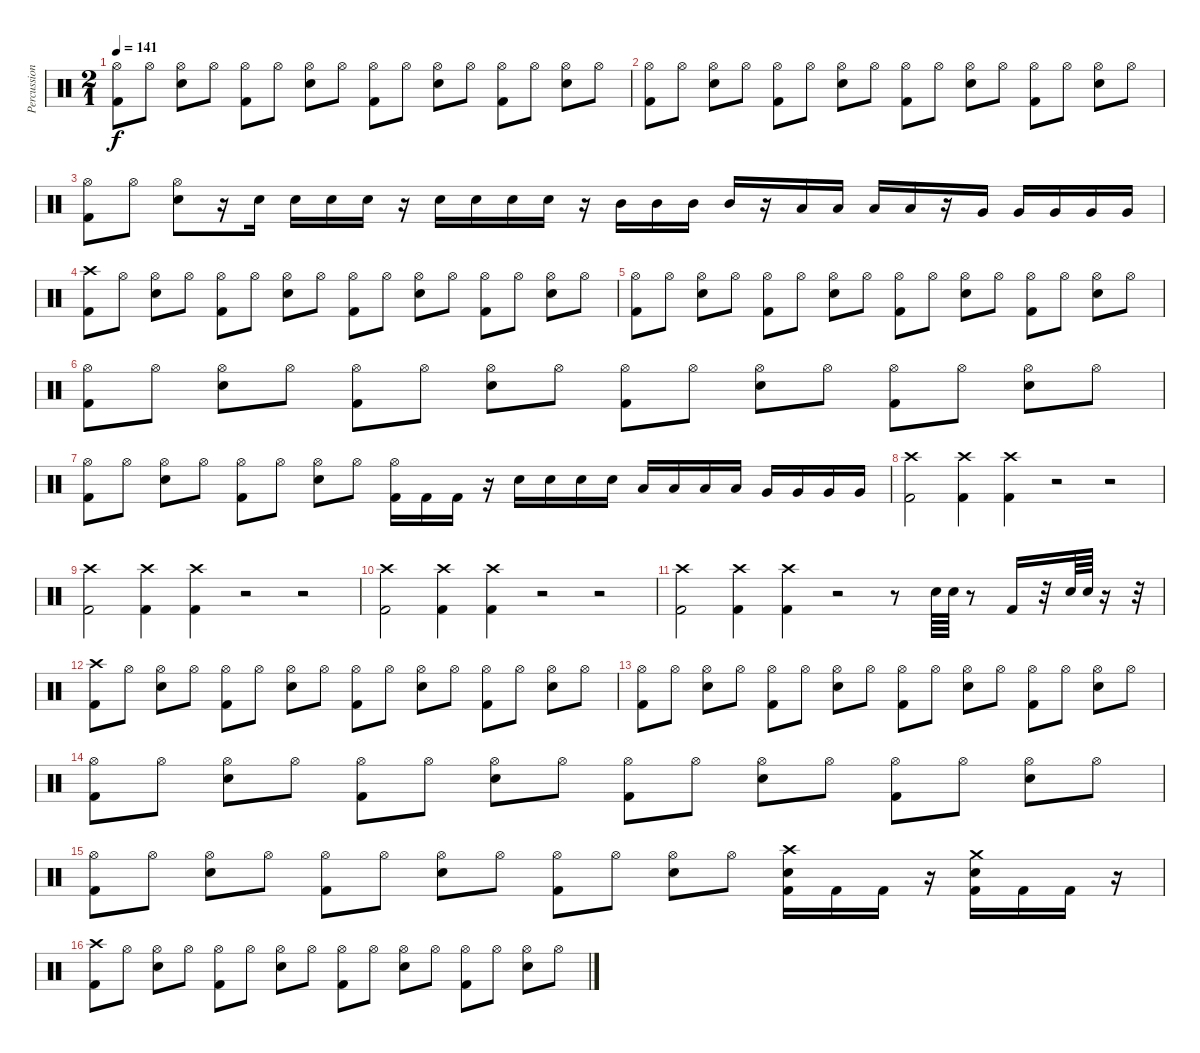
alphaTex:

\track ("Percussion" "Percussion") {instrument percussion}
\staff {score}
\articulation defaults
\ts (2 1)
\tempo 141
\clef neutral
\ks c
("Hi-Hat (open)" "Kick (hit) 2").8{dy f} "Hi-Hat (open)".8 ("Hi-Hat (open)" "Snare (hit) 2").8 "Hi-Hat (open)".8 ("Hi-Hat (open)" "Kick (hit) 2").8 "Hi-Hat (open)".8 ("Hi-Hat (open)" "Snare (hit) 2").8 "Hi-Hat (open)".8 ("Hi-Hat (open)" "Kick (hit) 2").8 "Hi-Hat (open)".8 ("Hi-Hat (open)" "Snare (hit) 2").8 "Hi-Hat (open)".8 ("Hi-Hat (open)" "Kick (hit) 2").8 "Hi-Hat (open)".8 ("Hi-Hat (open)" "Snare (hit) 2").8 "Hi-Hat (open)".8 |
("Hi-Hat (open)" "Kick (hit) 2").8 "Hi-Hat (open)".8 ("Hi-Hat (open)" "Snare (hit) 2").8 "Hi-Hat (open)".8 ("Hi-Hat (open)" "Kick (hit) 2").8 "Hi-Hat (open)".8 ("Hi-Hat (open)" "Snare (hit) 2").8 "Hi-Hat (open)".8 ("Hi-Hat (open)" "Kick (hit) 2").8 "Hi-Hat (open)".8 ("Hi-Hat (open)" "Snare (hit) 2").8 "Hi-Hat (open)".8 ("Hi-Hat (open)" "Kick (hit) 2").8 "Hi-Hat (open)".8 ("Hi-Hat (open)" "Snare (hit) 2").8 "Hi-Hat (open)".8 |
("Hi-Hat (open)" "Kick (hit) 2").8 "Hi-Hat (open)".8 ("Hi-Hat (open)" "Snare (hit) 2").8 r.16 "Snare (hit) 2".16 "Snare (hit) 2".16 "Snare (hit) 2".16 "Snare (hit) 2".16 r.16 "Snare (hit) 2".16 "Snare (hit) 2".16 "Snare (hit) 2".16 "Snare (hit) 2".16 r.16 "Mid Tom (hit)".16 "Mid Tom (hit)".16 "Mid Tom (hit)".16 "Mid Tom (hit)".16 r.16 "Low Tom (hit)".16 "Low Tom (hit)".16 "Low Tom (hit)".16 "Low Tom (hit)".16 r.16 "Very Low Tom (hit)".16 "Very Low Tom (hit)".16 "Very Low Tom (hit)".16 "Very Low Tom (hit)".16 "Very Low Tom (hit)".16 |
("Crash high (hit)" "Kick (hit) 2").8 "Hi-Hat (open)".8 ("Hi-Hat (open)" "Snare (hit) 2").8 "Hi-Hat (open)".8 ("Hi-Hat (open)" "Kick (hit) 2").8 "Hi-Hat (open)".8 ("Hi-Hat (open)" "Snare (hit) 2").8 "Hi-Hat (open)".8 ("Hi-Hat (open)" "Kick (hit) 2").8 "Hi-Hat (open)".8 ("Hi-Hat (open)" "Snare (hit) 2").8 "Hi-Hat (open)".8 ("Hi-Hat (open)" "Kick (hit) 2").8 "Hi-Hat (open)".8 ("Hi-Hat (open)" "Snare (hit) 2").8 "Hi-Hat (open)".8 |
("Hi-Hat (open)" "Kick (hit) 2").8 "Hi-Hat (open)".8 ("Hi-Hat (open)" "Snare (hit) 2").8 "Hi-Hat (open)".8 ("Hi-Hat (open)" "Kick (hit) 2").8 "Hi-Hat (open)".8 ("Hi-Hat (open)" "Snare (hit) 2").8 "Hi-Hat (open)".8 ("Hi-Hat (open)" "Kick (hit) 2").8 "Hi-Hat (open)".8 ("Hi-Hat (open)" "Snare (hit) 2").8 "Hi-Hat (open)".8 ("Hi-Hat (open)" "Kick (hit) 2").8 "Hi-Hat (open)".8 ("Hi-Hat (open)" "Snare (hit) 2").8 "Hi-Hat (open)".8 |
("Hi-Hat (open)" "Kick (hit) 2").8 "Hi-Hat (open)".8 ("Hi-Hat (open)" "Snare (hit) 2").8 "Hi-Hat (open)".8 ("Hi-Hat (open)" "Kick (hit) 2").8 "Hi-Hat (open)".8 ("Hi-Hat (open)" "Snare (hit) 2").8 "Hi-Hat (open)".8 ("Hi-Hat (open)" "Kick (hit) 2").8 "Hi-Hat (open)".8 ("Hi-Hat (open)" "Snare (hit) 2").8 "Hi-Hat (open)".8 ("Hi-Hat (open)" "Kick (hit) 2").8 "Hi-Hat (open)".8 ("Hi-Hat (open)" "Snare (hit) 2").8 "Hi-Hat (open)".8 |
("Hi-Hat (open)" "Kick (hit) 2").8 "Hi-Hat (open)".8 ("Hi-Hat (open)" "Snare (hit) 2").8 "Hi-Hat (open)".8 ("Hi-Hat (open)" "Kick (hit) 2").8 "Hi-Hat (open)".8 ("Hi-Hat (open)" "Snare (hit) 2").8 "Hi-Hat (open)".8 ("Hi-Hat (open)" "Kick (hit) 2").16 "Kick (hit) 2".16 "Kick (hit) 2".16 r.16 "Snare (hit) 2".16 "Snare (hit) 2".16 "Snare (hit) 2".16 "Snare (hit) 2".16 "Low Tom (hit)".16 "Low Tom (hit)".16 "Low Tom (hit)".16 "Low Tom (hit)".16 "Very Low Tom (hit)".16 "Very Low Tom (hit)".16 "Very Low Tom (hit)".16 "Very Low Tom (hit)".16 |
("Crash high (hit)" "Kick (hit) 2").2 ("Crash high (hit)" "Kick (hit) 2").4 ("Crash high (hit)" "Kick (hit) 2").4 r.2 r.2 |
("Crash high (hit)" "Kick (hit) 2").2 ("Crash high (hit)" "Kick (hit) 2").4 ("Crash high (hit)" "Kick (hit) 2").4 r.2 r.2 |
("Crash high (hit)" "Kick (hit) 2").2 ("Crash high (hit)" "Kick (hit) 2").4 ("Crash high (hit)" "Kick (hit) 2").4 r.2 r.2 |
("Crash high (hit)" "Kick (hit) 2").2 ("Crash high (hit)" "Kick (hit) 2").4 ("Crash high (hit)" "Kick (hit) 2").4 r.2 r.8 "Snare (hit) 2".64 "Snare (hit) 2".64 r.8 "Kick (hit) 2".16 r.32 "Snare (hit) 2".64 "Snare (hit) 2".64 r.16 r.32 |
("Crash high (hit)" "Kick (hit) 2").8 "Hi-Hat (open)".8 ("Hi-Hat (open)" "Snare (hit) 2").8 "Hi-Hat (open)".8 ("Hi-Hat (open)" "Kick (hit) 2").8 "Hi-Hat (open)".8 ("Hi-Hat (open)" "Snare (hit) 2").8 "Hi-Hat (open)".8 ("Hi-Hat (open)" "Kick (hit) 2").8 "Hi-Hat (open)".8 ("Hi-Hat (open)" "Snare (hit) 2").8 "Hi-Hat (open)".8 ("Hi-Hat (open)" "Kick (hit) 2").8 "Hi-Hat (open)".8 ("Hi-Hat (open)" "Snare (hit) 2").8 "Hi-Hat (open)".8 |
("Hi-Hat (open)" "Kick (hit) 2").8 "Hi-Hat (open)".8 ("Hi-Hat (open)" "Snare (hit) 2").8 "Hi-Hat (open)".8 ("Hi-Hat (open)" "Kick (hit) 2").8 "Hi-Hat (open)".8 ("Hi-Hat (open)" "Snare (hit) 2").8 "Hi-Hat (open)".8 ("Hi-Hat (open)" "Kick (hit) 2").8 "Hi-Hat (open)".8 ("Hi-Hat (open)" "Snare (hit) 2").8 "Hi-Hat (open)".8 ("Hi-Hat (open)" "Kick (hit) 2").8 "Hi-Hat (open)".8 ("Hi-Hat (open)" "Snare (hit) 2").8 "Hi-Hat (open)".8 |
("Hi-Hat (open)" "Kick (hit) 2").8 "Hi-Hat (open)".8 ("Hi-Hat (open)" "Snare (hit) 2").8 "Hi-Hat (open)".8 ("Hi-Hat (open)" "Kick (hit) 2").8 "Hi-Hat (open)".8 ("Hi-Hat (open)" "Snare (hit) 2").8 "Hi-Hat (open)".8 ("Hi-Hat (open)" "Kick (hit) 2").8 "Hi-Hat (open)".8 ("Hi-Hat (open)" "Snare (hit) 2").8 "Hi-Hat (open)".8 ("Hi-Hat (open)" "Kick (hit) 2").8 "Hi-Hat (open)".8 ("Hi-Hat (open)" "Snare (hit) 2").8 "Hi-Hat (open)".8 |
("Hi-Hat (open)" "Kick (hit) 2").8 "Hi-Hat (open)".8 ("Hi-Hat (open)" "Snare (hit) 2").8 "Hi-Hat (open)".8 ("Hi-Hat (open)" "Kick (hit) 2").8 "Hi-Hat (open)".8 ("Hi-Hat (open)" "Snare (hit) 2").8 "Hi-Hat (open)".8 ("Hi-Hat (open)" "Kick (hit) 2").8 "Hi-Hat (open)".8 ("Hi-Hat (open)" "Snare (hit) 2").8 "Hi-Hat (open)".8 ("Crash high (hit)" "Snare (hit) 2" "Kick (hit) 2").16 "Kick (hit) 2".16 "Kick (hit) 2".16 r.16 ("Crash medium (hit)" "Snare (hit) 2" "Kick (hit) 2").16 "Kick (hit) 2".16 "Kick (hit) 2".16 r.16 |
("Crash high (hit)" "Kick (hit) 2").8 "Hi-Hat (open)".8 ("Hi-Hat (open)" "Snare (hit) 2").8 "Hi-Hat (open)".8 ("Hi-Hat (open)" "Kick (hit) 2").8 "Hi-Hat (open)".8 ("Hi-Hat (open)" "Snare (hit) 2").8 "Hi-Hat (open)".8 ("Hi-Hat (open)" "Kick (hit) 2").8 "Hi-Hat (open)".8 ("Hi-Hat (open)" "Snare (hit) 2").8 "Hi-Hat (open)".8 ("Hi-Hat (open)" "Kick (hit) 2").8 "Hi-Hat (open)".8 ("Hi-Hat (open)" "Snare (hit) 2").8 "Hi-Hat (open)".8
